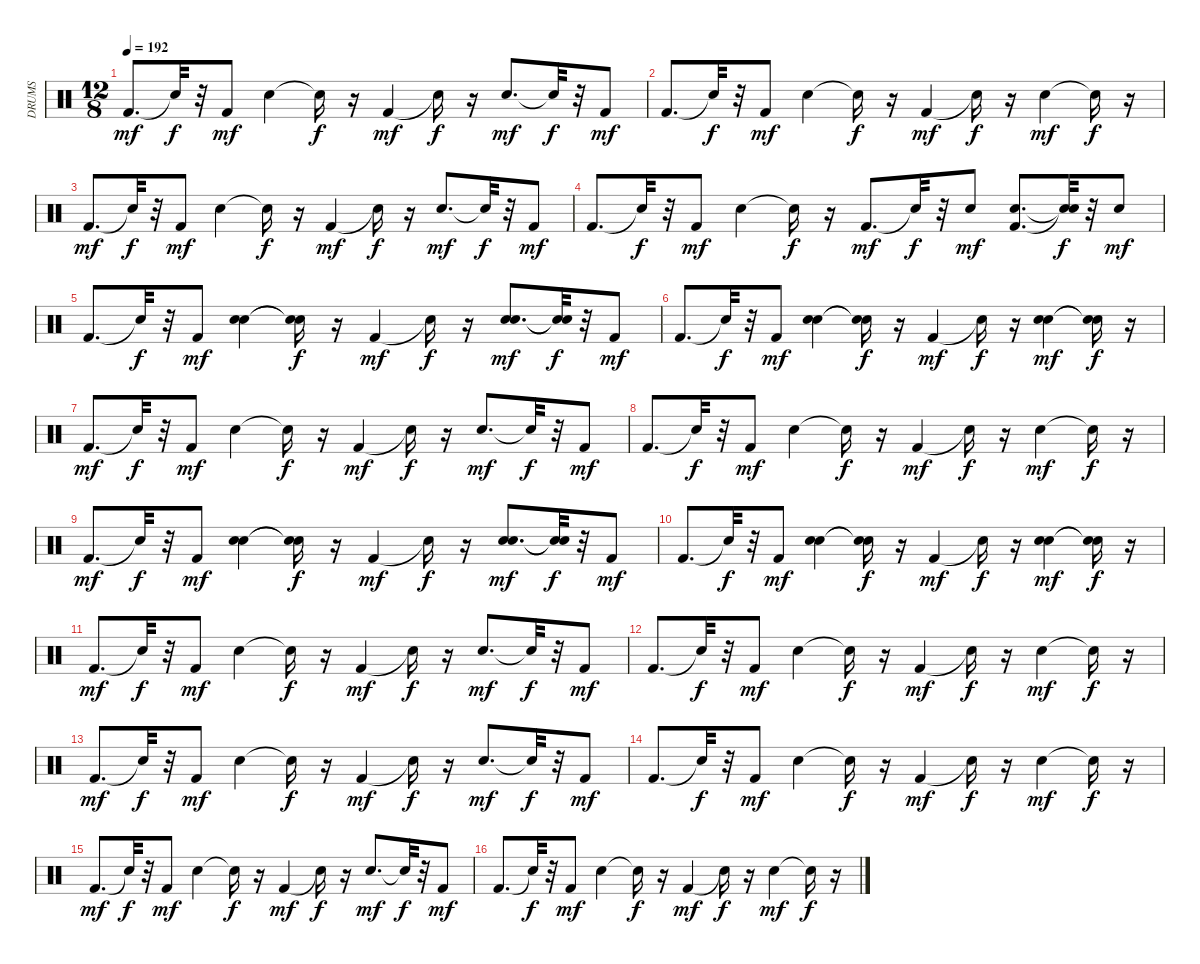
\track ("DRUMS" "DRUMS") {instrument percussion}
\staff {score}
\articulation defaults
\ts (12 8)
\tempo 192
\clef neutral
\ks c "Kick (hit) 2".8{d dy mf} "Snare (hit)"{t}.32{dy f}
r.32 "Kick (hit) 2".8{dy mf} "Snare (hit) 2".4 "Snare (hit)"{t}.16{dy f} r.16 "Kick (hit) 2".4{dy mf} "Snare (hit)"{t}.16{dy f} r.16 "Snare (hit) 2".8{d dy mf} "Snare (hit)"{t}.32{dy f} r.32 "Kick (hit) 2".8{dy mf} |
"Kick (hit) 2".8{d} "Snare (hit)"{t}.32{dy f} r.32 "Kick (hit) 2".8{dy mf} "Snare (hit) 2".4 "Snare (hit)"{t}.16{dy f} r.16 "Kick (hit) 2".4{dy mf} "Snare (hit)"{t}.16{dy f} r.16 "Snare (hit) 2".4{dy mf} "Snare (hit)"{t}.16{dy f} r.16 |
"Kick (hit) 2".8{d dy mf} "Snare (hit)"{t}.32{dy f} r.32 "Kick (hit) 2".8{dy mf} "Snare (hit) 2".4 "Snare (hit)"{t}.16{dy f} r.16 "Kick (hit) 2".4{dy mf} "Snare (hit)"{t}.16{dy f} r.16 "Snare (hit) 2".8{d dy mf} "Snare (hit)"{t}.32{dy f} r.32 "Kick (hit) 2".8{dy mf} |
"Kick (hit) 2".8{d} "Snare (hit)"{t}.32{dy f} r.32 "Kick (hit) 2".8{dy mf} "Snare (hit) 2".4 "Snare (hit)"{t}.16{dy f} r.16 "Kick (hit) 2".8{d dy mf} "Snare (hit)"{t}.32{dy f} r.32 "Snare (hit) 2".8{dy mf} ("Kick (hit) 2" "Snare (hit) 2").8{d} ("Snare (hit)"{t} "Snare (hit)"{t}).32{dy f} r.32 "Snare (hit) 2".8{dy mf} |
"Kick (hit) 2".8{d} "Snare (hit)"{t}.32{dy f} r.32 "Kick (hit) 2".8{dy mf} ("Hand Clap (hit)" "Snare (hit) 2").4 ("Snare (hit)"{t} "Snare (hit)"{t}).16{dy f} r.16 "Kick (hit) 2".4{dy mf} "Snare (hit)"{t}.16{dy f} r.16 ("Hand Clap (hit)" "Snare (hit) 2").8{d dy mf} ("Snare (hit)"{t} "Snare (hit)"{t}).32{dy f} r.32 "Kick (hit) 2".8{dy mf} |
"Kick (hit) 2".8{d} "Snare (hit)"{t}.32{dy f} r.32 "Kick (hit) 2".8{dy mf} ("Hand Clap (hit)" "Snare (hit) 2").4 ("Snare (hit)"{t} "Snare (hit)"{t}).16{dy f} r.16 "Kick (hit) 2".4{dy mf} "Snare (hit)"{t}.16{dy f} r.16 ("Hand Clap (hit)" "Snare (hit) 2").4{dy mf} ("Snare (hit)"{t} "Snare (hit)"{t}).16{dy f} r.16 |
"Kick (hit) 2".8{d dy mf} "Snare (hit)"{t}.32{dy f} r.32 "Kick (hit) 2".8{dy mf} "Snare (hit) 2".4 "Snare (hit)"{t}.16{dy f} r.16 "Kick (hit) 2".4{dy mf} "Snare (hit)"{t}.16{dy f} r.16 "Snare (hit) 2".8{d dy mf} "Snare (hit)"{t}.32{dy f} r.32 "Kick (hit) 2".8{dy mf} |
"Kick (hit) 2".8{d} "Snare (hit)"{t}.32{dy f} r.32 "Kick (hit) 2".8{dy mf} "Snare (hit) 2".4 "Snare (hit)"{t}.16{dy f} r.16 "Kick (hit) 2".4{dy mf} "Snare (hit)"{t}.16{dy f} r.16 "Snare (hit) 2".4{dy mf} "Snare (hit)"{t}.16{dy f} r.16 |
"Kick (hit) 2".8{d dy mf} "Snare (hit)"{t}.32{dy f} r.32 "Kick (hit) 2".8{dy mf} ("Hand Clap (hit)" "Snare (hit) 2").4 ("Snare (hit)"{t} "Snare (hit)"{t}).16{dy f} r.16 "Kick (hit) 2".4{dy mf} "Snare (hit)"{t}.16{dy f} r.16 ("Hand Clap (hit)" "Snare (hit) 2").8{d dy mf} ("Snare (hit)"{t} "Snare (hit)"{t}).32{dy f} r.32 "Kick (hit) 2".8{dy mf} |
"Kick (hit) 2".8{d} "Snare (hit)"{t}.32{dy f} r.32 "Kick (hit) 2".8{dy mf} ("Hand Clap (hit)" "Snare (hit) 2").4 ("Snare (hit)"{t} "Snare (hit)"{t}).16{dy f} r.16 "Kick (hit) 2".4{dy mf} "Snare (hit)"{t}.16{dy f} r.16 ("Hand Clap (hit)" "Snare (hit) 2").4{dy mf} ("Snare (hit)"{t} "Snare (hit)"{t}).16{dy f} r.16 |
"Kick (hit) 2".8{d dy mf} "Snare (hit)"{t}.32{dy f} r.32 "Kick (hit) 2".8{dy mf} "Snare (hit) 2".4 "Snare (hit)"{t}.16{dy f} r.16 "Kick (hit) 2".4{dy mf} "Snare (hit)"{t}.16{dy f} r.16 "Snare (hit) 2".8{d dy mf} "Snare (hit)"{t}.32{dy f} r.32 "Kick (hit) 2".8{dy mf} |
"Kick (hit) 2".8{d} "Snare (hit)"{t}.32{dy f} r.32 "Kick (hit) 2".8{dy mf} "Snare (hit) 2".4 "Snare (hit)"{t}.16{dy f} r.16 "Kick (hit) 2".4{dy mf} "Snare (hit)"{t}.16{dy f} r.16 "Snare (hit) 2".4{dy mf} "Snare (hit)"{t}.16{dy f} r.16 |
"Kick (hit) 2".8{d dy mf} "Snare (hit)"{t}.32{dy f} r.32 "Kick (hit) 2".8{dy mf} "Snare (hit) 2".4 "Snare (hit)"{t}.16{dy f} r.16 "Kick (hit) 2".4{dy mf} "Snare (hit)"{t}.16{dy f} r.16 "Snare (hit) 2".8{d dy mf} "Snare (hit)"{t}.32{dy f} r.32 "Kick (hit) 2".8{dy mf} |
"Kick (hit) 2".8{d} "Snare (hit)"{t}.32{dy f} r.32 "Kick (hit) 2".8{dy mf} "Snare (hit) 2".4 "Snare (hit)"{t}.16{dy f} r.16 "Kick (hit) 2".4{dy mf} "Snare (hit)"{t}.16{dy f} r.16 "Snare (hit) 2".4{dy mf} "Snare (hit)"{t}.16{dy f} r.16 |
"Kick (hit) 2".8{d dy mf} "Snare (hit)"{t}.32{dy f} r.32 "Kick (hit) 2".8{dy mf} "Snare (hit) 2".4 "Snare (hit)"{t}.16{dy f} r.16 "Kick (hit) 2".4{dy mf} "Snare (hit)"{t}.16{dy f} r.16 "Snare (hit) 2".8{d dy mf} "Snare (hit)"{t}.32{dy f} r.32 "Kick (hit) 2".8{dy mf} |
"Kick (hit) 2".8{d} "Snare (hit)"{t}.32{dy f} r.32 "Kick (hit) 2".8{dy mf} "Snare (hit) 2".4 "Snare (hit)"{t}.16{dy f} r.16 "Kick (hit) 2".4{dy mf} "Snare (hit)"{t}.16{dy f} r.16 "Snare (hit) 2".4{dy mf} "Snare (hit)"{t}.16{dy f} r.16
